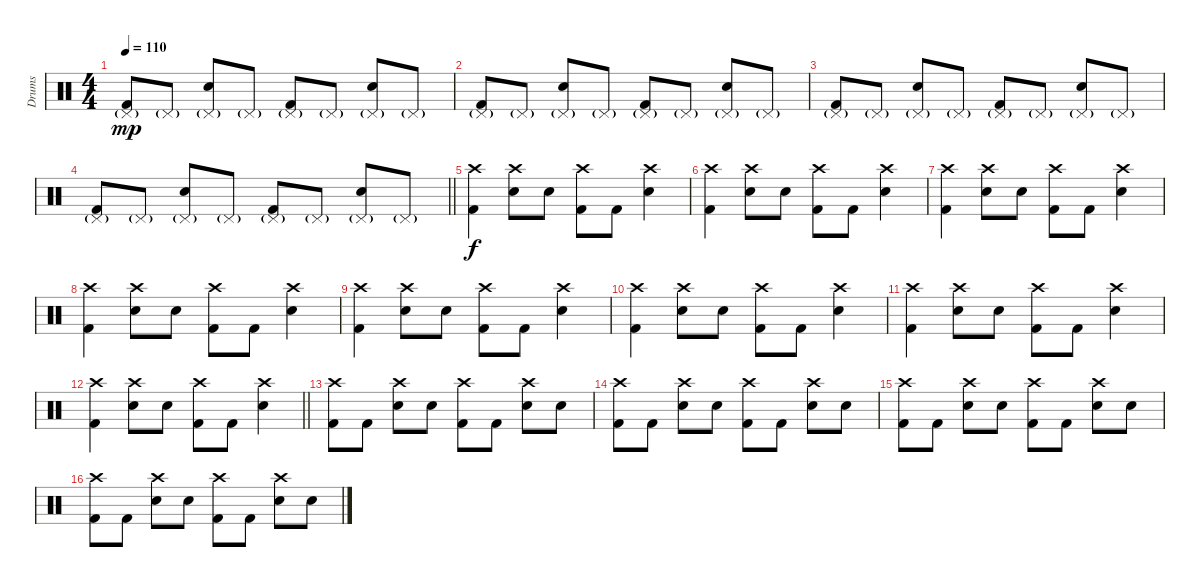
\track ("Drums" "Drums") {instrument percussion}
\staff {score}
\articulation defaults
\ts (4 4)
\tempo 110
\clef neutral
\ks c
("Pedal Hi-Hat (hit)"{g} "Kick (hit) 2").8{dy mp} "Pedal Hi-Hat (hit)"{g}.8 ("Pedal Hi-Hat (hit)"{g} "Snare (hit) 2").8 "Pedal Hi-Hat (hit)"{g}.8 ("Pedal Hi-Hat (hit)"{g} "Kick (hit) 2").8 "Pedal Hi-Hat (hit)"{g}.8 ("Pedal Hi-Hat (hit)"{g} "Snare (hit) 2").8 "Pedal Hi-Hat (hit)"{g}.8 |
("Pedal Hi-Hat (hit)"{g} "Kick (hit) 2").8 "Pedal Hi-Hat (hit)"{g}.8 ("Pedal Hi-Hat (hit)"{g} "Snare (hit) 2").8 "Pedal Hi-Hat (hit)"{g}.8 ("Pedal Hi-Hat (hit)"{g} "Kick (hit) 2").8 "Pedal Hi-Hat (hit)"{g}.8 ("Pedal Hi-Hat (hit)"{g} "Snare (hit) 2").8 "Pedal Hi-Hat (hit)"{g}.8 |
("Pedal Hi-Hat (hit)"{g} "Kick (hit) 2").8 "Pedal Hi-Hat (hit)"{g}.8 ("Pedal Hi-Hat (hit)"{g} "Snare (hit) 2").8 "Pedal Hi-Hat (hit)"{g}.8 ("Pedal Hi-Hat (hit)"{g} "Kick (hit) 2").8 "Pedal Hi-Hat (hit)"{g}.8 ("Pedal Hi-Hat (hit)"{g} "Snare (hit) 2").8 "Pedal Hi-Hat (hit)"{g}.8 |
\barLineRight lightlight
("Pedal Hi-Hat (hit)"{g} "Kick (hit) 2").8 "Pedal Hi-Hat (hit)"{g}.8 ("Pedal Hi-Hat (hit)"{g} "Snare (hit) 2").8 "Pedal Hi-Hat (hit)"{g}.8 ("Pedal Hi-Hat (hit)"{g} "Kick (hit) 2").8 "Pedal Hi-Hat (hit)"{g}.8 ("Pedal Hi-Hat (hit)"{g} "Snare (hit) 2").8 "Pedal Hi-Hat (hit)"{g}.8 |
("Crash high (hit)" "Kick (hit) 2").4{dy f} ("Crash high (hit)" "Snare (hit) 2").8 "Snare (hit) 2".8 ("Crash high (hit)" "Kick (hit) 2").8 "Kick (hit) 2".8 ("Crash high (hit)" "Snare (hit) 2").4 |
("Crash high (hit)" "Kick (hit) 2").4 ("Crash high (hit)" "Snare (hit) 2").8 "Snare (hit) 2".8 ("Crash high (hit)" "Kick (hit) 2").8 "Kick (hit) 2".8 ("Crash high (hit)" "Snare (hit) 2").4 |
("Crash high (hit)" "Kick (hit) 2").4 ("Crash high (hit)" "Snare (hit) 2").8 "Snare (hit) 2".8 ("Crash high (hit)" "Kick (hit) 2").8 "Kick (hit) 2".8 ("Crash high (hit)" "Snare (hit) 2").4 |
("Crash high (hit)" "Kick (hit) 2").4 ("Crash high (hit)" "Snare (hit) 2").8 "Snare (hit) 2".8 ("Crash high (hit)" "Kick (hit) 2").8 "Kick (hit) 2".8 ("Crash high (hit)" "Snare (hit) 2").4 |
("Crash high (hit)" "Kick (hit) 2").4 ("Crash high (hit)" "Snare (hit) 2").8 "Snare (hit) 2".8 ("Crash high (hit)" "Kick (hit) 2").8 "Kick (hit) 2".8 ("Crash high (hit)" "Snare (hit) 2").4 |
("Crash high (hit)" "Kick (hit) 2").4 ("Crash high (hit)" "Snare (hit) 2").8 "Snare (hit) 2".8 ("Crash high (hit)" "Kick (hit) 2").8 "Kick (hit) 2".8 ("Crash high (hit)" "Snare (hit) 2").4 |
("Crash high (hit)" "Kick (hit) 2").4 ("Crash high (hit)" "Snare (hit) 2").8 "Snare (hit) 2".8 ("Crash high (hit)" "Kick (hit) 2").8 "Kick (hit) 2".8 ("Crash high (hit)" "Snare (hit) 2").4 |
\barLineRight lightlight
("Crash high (hit)" "Kick (hit) 2").4 ("Crash high (hit)" "Snare (hit) 2").8 "Snare (hit) 2".8 ("Crash high (hit)" "Kick (hit) 2").8 "Kick (hit) 2".8 ("Crash high (hit)" "Snare (hit) 2").4 |
("Crash high (hit)" "Kick (hit) 2").8 "Kick (hit) 2".8 ("Crash high (hit)" "Snare (hit) 2").8 "Snare (hit) 2".8 ("Crash high (hit)" "Kick (hit) 2").8 "Kick (hit) 2".8 ("Crash high (hit)" "Snare (hit) 2").8 "Snare (hit) 2".8 |
("Crash high (hit)" "Kick (hit) 2").8 "Kick (hit) 2".8 ("Crash high (hit)" "Snare (hit) 2").8 "Snare (hit) 2".8 ("Crash high (hit)" "Kick (hit) 2").8 "Kick (hit) 2".8 ("Crash high (hit)" "Snare (hit) 2").8 "Snare (hit) 2".8 |
("Crash high (hit)" "Kick (hit) 2").8 "Kick (hit) 2".8 ("Crash high (hit)" "Snare (hit) 2").8 "Snare (hit) 2".8 ("Crash high (hit)" "Kick (hit) 2").8 "Kick (hit) 2".8 ("Crash high (hit)" "Snare (hit) 2").8 "Snare (hit) 2".8 |
("Crash high (hit)" "Kick (hit) 2").8 "Kick (hit) 2".8 ("Crash high (hit)" "Snare (hit) 2").8 "Snare (hit) 2".8 ("Crash high (hit)" "Kick (hit) 2").8 "Kick (hit) 2".8 ("Crash high (hit)" "Snare (hit) 2").8 "Snare (hit) 2".8
